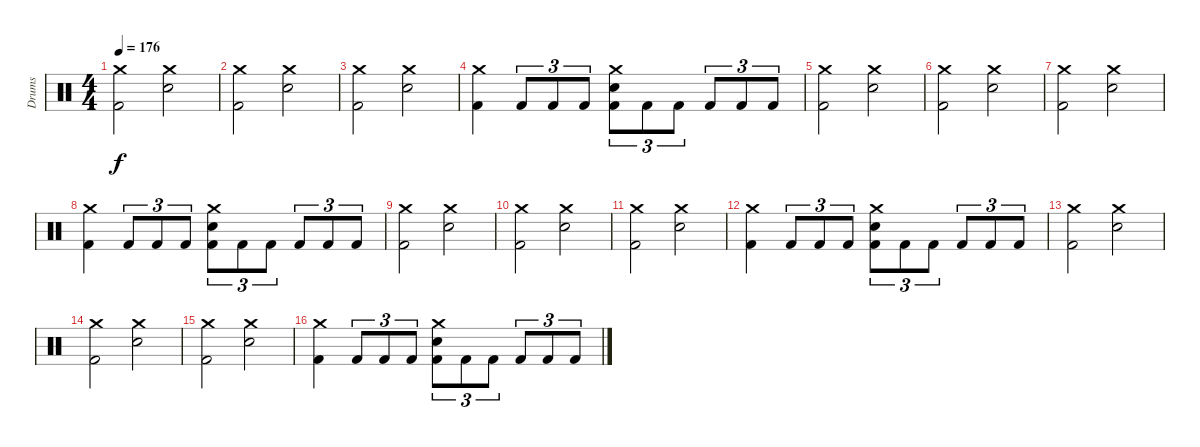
\track ("Drums" "Drums") {instrument percussion}
\staff {score}
\articulation defaults
\ts (4 4)
\tempo 176
\clef neutral
\ks c
("Crash medium (hit)" "Kick (hit) 2").2{dy f} ("Crash medium (hit)" "Electric Snare (hit)").2 |
("Crash medium (hit)" "Kick (hit) 2").2 ("Crash medium (hit)" "Electric Snare (hit)").2 |
("Crash medium (hit)" "Kick (hit) 2").2 ("Crash medium (hit)" "Electric Snare (hit)").2 |
("Crash medium (hit)" "Kick (hit) 2").4 "Kick (hit) 2".8{tu (3 2)} "Kick (hit) 2".8{tu (3 2)} "Kick (hit) 2".8{tu (3 2)} ("Crash medium (hit)" "Electric Snare (hit)" "Kick (hit) 2").8{tu (3 2)} "Kick (hit) 2".8{tu (3 2)} "Kick (hit) 2".8{tu (3 2)} "Kick (hit) 2".8{tu (3 2)} "Kick (hit) 2".8{tu (3 2)} "Kick (hit) 2".8{tu (3 2)} |
("Crash medium (hit)" "Kick (hit) 2").2 ("Crash medium (hit)" "Electric Snare (hit)").2 |
("Crash medium (hit)" "Kick (hit) 2").2 ("Crash medium (hit)" "Electric Snare (hit)").2 |
("Crash medium (hit)" "Kick (hit) 2").2 ("Crash medium (hit)" "Electric Snare (hit)").2 |
("Crash medium (hit)" "Kick (hit) 2").4 "Kick (hit) 2".8{tu (3 2)} "Kick (hit) 2".8{tu (3 2)} "Kick (hit) 2".8{tu (3 2)} ("Crash medium (hit)" "Electric Snare (hit)" "Kick (hit) 2").8{tu (3 2)} "Kick (hit) 2".8{tu (3 2)} "Kick (hit) 2".8{tu (3 2)} "Kick (hit) 2".8{tu (3 2)} "Kick (hit) 2".8{tu (3 2)} "Kick (hit) 2".8{tu (3 2)} |
("Crash medium (hit)" "Kick (hit) 2").2 ("Crash medium (hit)" "Electric Snare (hit)").2 |
("Crash medium (hit)" "Kick (hit) 2").2 ("Crash medium (hit)" "Electric Snare (hit)").2 |
("Crash medium (hit)" "Kick (hit) 2").2 ("Crash medium (hit)" "Electric Snare (hit)").2 |
("Crash medium (hit)" "Kick (hit) 2").4 "Kick (hit) 2".8{tu (3 2)} "Kick (hit) 2".8{tu (3 2)} "Kick (hit) 2".8{tu (3 2)} ("Crash medium (hit)" "Electric Snare (hit)" "Kick (hit) 2").8{tu (3 2)} "Kick (hit) 2".8{tu (3 2)} "Kick (hit) 2".8{tu (3 2)} "Kick (hit) 2".8{tu (3 2)} "Kick (hit) 2".8{tu (3 2)} "Kick (hit) 2".8{tu (3 2)} |
("Crash medium (hit)" "Kick (hit) 2").2 ("Crash medium (hit)" "Electric Snare (hit)").2 |
("Crash medium (hit)" "Kick (hit) 2").2 ("Crash medium (hit)" "Electric Snare (hit)").2 |
("Crash medium (hit)" "Kick (hit) 2").2 ("Crash medium (hit)" "Electric Snare (hit)").2 |
("Crash medium (hit)" "Kick (hit) 2").4 "Kick (hit) 2".8{tu (3 2)} "Kick (hit) 2".8{tu (3 2)} "Kick (hit) 2".8{tu (3 2)} ("Crash medium (hit)" "Electric Snare (hit)" "Kick (hit) 2").8{tu (3 2)} "Kick (hit) 2".8{tu (3 2)} "Kick (hit) 2".8{tu (3 2)} "Kick (hit) 2".8{tu (3 2)} "Kick (hit) 2".8{tu (3 2)} "Kick (hit) 2".8{tu (3 2)}
